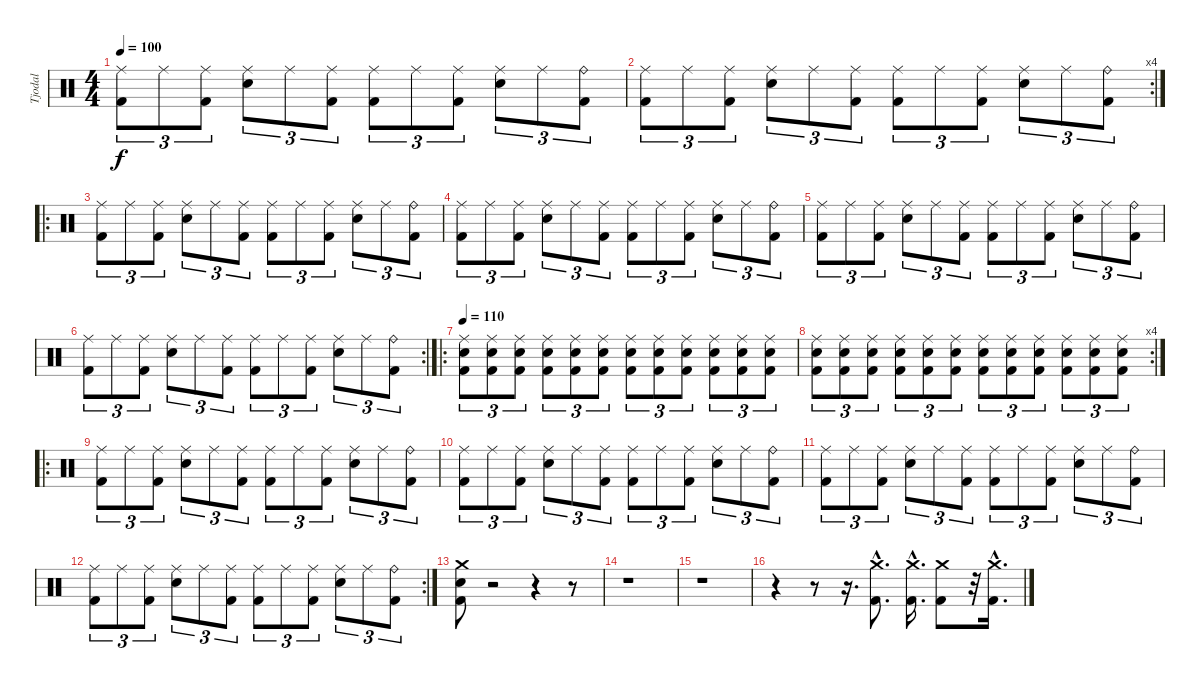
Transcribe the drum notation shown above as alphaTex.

\track ("Tjodal" "Tjodal") {instrument percussion}
\staff {score}
\articulation defaults
\ts (4 4)
\tempo 100
\clef neutral
\ks c
("Ride (middle)" "Kick (hit) 2").8{tu (3 2) dy f} "Ride (middle)".8{tu (3 2)} ("Ride (middle)" "Kick (hit) 2").8{tu (3 2)} ("Ride (middle)" "Snare (hit) 2").8{tu (3 2)} "Ride (middle)".8{tu (3 2)} ("Ride (middle)" "Kick (hit) 2").8{tu (3 2)} ("Ride (middle)" "Kick (hit) 2").8{tu (3 2)} "Ride (middle)".8{tu (3 2)} ("Ride (middle)" "Kick (hit) 2").8{tu (3 2)} ("Ride (middle)" "Snare (hit) 2").8{tu (3 2)} "Ride (middle)".8{tu (3 2)} ("Ride (bell)" "Kick (hit) 2").8{tu (3 2)} |
\rc 4
("Ride (middle)" "Kick (hit) 2").8{tu (3 2)} "Ride (middle)".8{tu (3 2)} ("Ride (middle)" "Kick (hit) 2").8{tu (3 2)} ("Ride (middle)" "Snare (hit) 2").8{tu (3 2)} "Ride (middle)".8{tu (3 2)} ("Ride (middle)" "Kick (hit) 2").8{tu (3 2)} ("Ride (middle)" "Kick (hit) 2").8{tu (3 2)} "Ride (middle)".8{tu (3 2)} ("Ride (middle)" "Kick (hit) 2").8{tu (3 2)} ("Ride (middle)" "Snare (hit) 2").8{tu (3 2)} "Ride (middle)".8{tu (3 2)} ("Ride (bell)" "Kick (hit) 2").8{tu (3 2)} |
\ro
("Ride (middle)" "Kick (hit) 2").8{tu (3 2)} "Ride (middle)".8{tu (3 2)} ("Ride (middle)" "Kick (hit) 2").8{tu (3 2)} ("Ride (middle)" "Snare (hit) 2").8{tu (3 2)} "Ride (middle)".8{tu (3 2)} ("Ride (middle)" "Kick (hit) 2").8{tu (3 2)} ("Ride (middle)" "Kick (hit) 2").8{tu (3 2)} "Ride (middle)".8{tu (3 2)} ("Ride (middle)" "Kick (hit) 2").8{tu (3 2)} ("Ride (middle)" "Snare (hit) 2").8{tu (3 2)} "Ride (middle)".8{tu (3 2)} ("Ride (bell)" "Kick (hit) 2").8{tu (3 2)} |
("Ride (middle)" "Kick (hit) 2").8{tu (3 2)} "Ride (middle)".8{tu (3 2)} ("Ride (middle)" "Kick (hit) 2").8{tu (3 2)} ("Ride (middle)" "Snare (hit) 2").8{tu (3 2)} "Ride (middle)".8{tu (3 2)} ("Ride (middle)" "Kick (hit) 2").8{tu (3 2)} ("Ride (middle)" "Kick (hit) 2").8{tu (3 2)} "Ride (middle)".8{tu (3 2)} ("Ride (middle)" "Kick (hit) 2").8{tu (3 2)} ("Ride (middle)" "Snare (hit) 2").8{tu (3 2)} "Ride (middle)".8{tu (3 2)} ("Ride (bell)" "Kick (hit) 2").8{tu (3 2)} |
("Ride (middle)" "Kick (hit) 2").8{tu (3 2)} "Ride (middle)".8{tu (3 2)} ("Ride (middle)" "Kick (hit) 2").8{tu (3 2)} ("Ride (middle)" "Snare (hit) 2").8{tu (3 2)} "Ride (middle)".8{tu (3 2)} ("Ride (middle)" "Kick (hit) 2").8{tu (3 2)} ("Ride (middle)" "Kick (hit) 2").8{tu (3 2)} "Ride (middle)".8{tu (3 2)} ("Ride (middle)" "Kick (hit) 2").8{tu (3 2)} ("Ride (middle)" "Snare (hit) 2").8{tu (3 2)} "Ride (middle)".8{tu (3 2)} ("Ride (bell)" "Kick (hit) 2").8{tu (3 2)} |
\rc 2
("Ride (middle)" "Kick (hit) 2").8{tu (3 2)} "Ride (middle)".8{tu (3 2)} ("Ride (middle)" "Kick (hit) 2").8{tu (3 2)} ("Ride (middle)" "Snare (hit) 2").8{tu (3 2)} "Ride (middle)".8{tu (3 2)} ("Ride (middle)" "Kick (hit) 2").8{tu (3 2)} ("Ride (middle)" "Kick (hit) 2").8{tu (3 2)} "Ride (middle)".8{tu (3 2)} ("Ride (middle)" "Kick (hit) 2").8{tu (3 2)} ("Ride (middle)" "Snare (hit) 2").8{tu (3 2)} "Ride (middle)".8{tu (3 2)} ("Ride (bell)" "Kick (hit) 2").8{tu (3 2)} |
\ro
\tempo 110
("Ride (middle)" "Snare (hit) 2" "Kick (hit) 2").8{tu (3 2)} ("Ride (middle)" "Snare (hit) 2" "Kick (hit) 2").8{tu (3 2)} ("Ride (middle)" "Snare (hit) 2" "Kick (hit) 2").8{tu (3 2)} ("Ride (middle)" "Snare (hit) 2" "Kick (hit) 2").8{tu (3 2)} ("Ride (middle)" "Snare (hit) 2" "Kick (hit) 2").8{tu (3 2)} ("Ride (middle)" "Snare (hit) 2" "Kick (hit) 2").8{tu (3 2)} ("Ride (middle)" "Snare (hit) 2" "Kick (hit) 2").8{tu (3 2)} ("Ride (middle)" "Snare (hit) 2" "Kick (hit) 2").8{tu (3 2)} ("Ride (middle)" "Snare (hit) 2" "Kick (hit) 2").8{tu (3 2)} ("Ride (middle)" "Snare (hit) 2" "Kick (hit) 2").8{tu (3 2)} ("Ride (middle)" "Snare (hit) 2" "Kick (hit) 2").8{tu (3 2)} ("Ride (middle)" "Snare (hit) 2" "Kick (hit) 2").8{tu (3 2)} |
\rc 4
("Ride (middle)" "Snare (hit) 2" "Kick (hit) 2").8{tu (3 2)} ("Ride (middle)" "Snare (hit) 2" "Kick (hit) 2").8{tu (3 2)} ("Ride (middle)" "Snare (hit) 2" "Kick (hit) 2").8{tu (3 2)} ("Ride (middle)" "Snare (hit) 2" "Kick (hit) 2").8{tu (3 2)} ("Ride (middle)" "Snare (hit) 2" "Kick (hit) 2").8{tu (3 2)} ("Ride (middle)" "Snare (hit) 2" "Kick (hit) 2").8{tu (3 2)} ("Ride (middle)" "Snare (hit) 2" "Kick (hit) 2").8{tu (3 2)} ("Ride (middle)" "Snare (hit) 2" "Kick (hit) 2").8{tu (3 2)} ("Ride (middle)" "Snare (hit) 2" "Kick (hit) 2").8{tu (3 2)} ("Ride (middle)" "Snare (hit) 2" "Kick (hit) 2").8{tu (3 2)} ("Ride (middle)" "Snare (hit) 2" "Kick (hit) 2").8{tu (3 2)} ("Ride (middle)" "Snare (hit) 2" "Kick (hit) 2").8{tu (3 2)} |
\ro
("Ride (middle)" "Kick (hit) 2").8{tu (3 2)} "Ride (middle)".8{tu (3 2)} ("Ride (middle)" "Kick (hit) 2").8{tu (3 2)} ("Ride (middle)" "Snare (hit) 2").8{tu (3 2)} "Ride (middle)".8{tu (3 2)} ("Ride (middle)" "Kick (hit) 2").8{tu (3 2)} ("Ride (middle)" "Kick (hit) 2").8{tu (3 2)} "Ride (middle)".8{tu (3 2)} ("Ride (middle)" "Kick (hit) 2").8{tu (3 2)} ("Ride (middle)" "Snare (hit) 2").8{tu (3 2)} "Ride (middle)".8{tu (3 2)} ("Ride (bell)" "Kick (hit) 2").8{tu (3 2)} |
("Ride (middle)" "Kick (hit) 2").8{tu (3 2)} "Ride (middle)".8{tu (3 2)} ("Ride (middle)" "Kick (hit) 2").8{tu (3 2)} ("Ride (middle)" "Snare (hit) 2").8{tu (3 2)} "Ride (middle)".8{tu (3 2)} ("Ride (middle)" "Kick (hit) 2").8{tu (3 2)} ("Ride (middle)" "Kick (hit) 2").8{tu (3 2)} "Ride (middle)".8{tu (3 2)} ("Ride (middle)" "Kick (hit) 2").8{tu (3 2)} ("Ride (middle)" "Snare (hit) 2").8{tu (3 2)} "Ride (middle)".8{tu (3 2)} ("Ride (bell)" "Kick (hit) 2").8{tu (3 2)} |
("Ride (middle)" "Kick (hit) 2").8{tu (3 2)} "Ride (middle)".8{tu (3 2)} ("Ride (middle)" "Kick (hit) 2").8{tu (3 2)} ("Ride (middle)" "Snare (hit) 2").8{tu (3 2)} "Ride (middle)".8{tu (3 2)} ("Ride (middle)" "Kick (hit) 2").8{tu (3 2)} ("Ride (middle)" "Kick (hit) 2").8{tu (3 2)} "Ride (middle)".8{tu (3 2)} ("Ride (middle)" "Kick (hit) 2").8{tu (3 2)} ("Ride (middle)" "Snare (hit) 2").8{tu (3 2)} "Ride (middle)".8{tu (3 2)} ("Ride (bell)" "Kick (hit) 2").8{tu (3 2)} |
\rc 2
("Ride (middle)" "Kick (hit) 2").8{tu (3 2)} "Ride (middle)".8{tu (3 2)} ("Ride (middle)" "Kick (hit) 2").8{tu (3 2)} ("Ride (middle)" "Snare (hit) 2").8{tu (3 2)} "Ride (middle)".8{tu (3 2)} ("Ride (middle)" "Kick (hit) 2").8{tu (3 2)} ("Ride (middle)" "Kick (hit) 2").8{tu (3 2)} "Ride (middle)".8{tu (3 2)} ("Ride (middle)" "Kick (hit) 2").8{tu (3 2)} ("Ride (middle)" "Snare (hit) 2").8{tu (3 2)} "Ride (middle)".8{tu (3 2)} ("Ride (bell)" "Kick (hit) 2").8{tu (3 2)} |
("Kick (hit) 2" "Snare (hit) 2" "Crash medium (hit)").8 r.2 r.4 r.8 |
r.1 |
r.1 |
r.4 r.8 r.16{d} ("Kick (hit) 2"{hac} "Crash medium (hit)"{hac}).8{d} ("Kick (hit) 2"{hac} "Crash medium (hit)"{hac}).16{d} ("Kick (hit) 2" "Crash medium (hit)").8 r.32 ("Kick (hit) 2"{hac} "Crash medium (hit)"{hac}).16{d}
